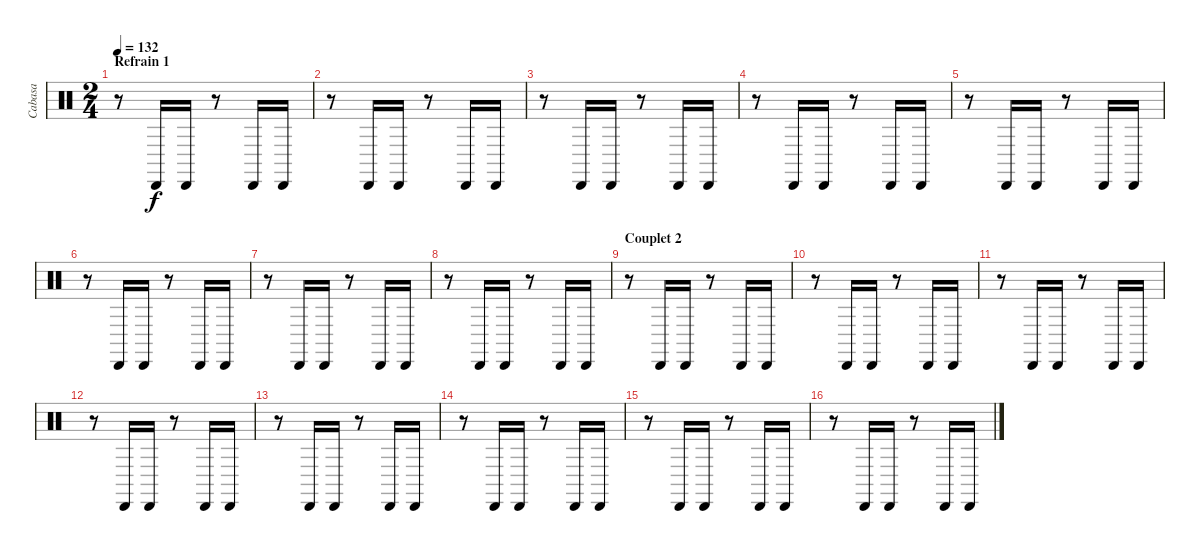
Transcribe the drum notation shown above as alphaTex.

\track ("Cabasa" "Cabasa") {instrument percussion}
\staff {score}
\articulation defaults
\ts (2 4)
\section ("" "Refrain 1")
\tempo 132
\clef neutral
\ks c
r.8{dy f} "Cabasa (hit)".16 "Cabasa (hit)".16 r.8 "Cabasa (hit)".16 "Cabasa (hit)".16 |
r.8 "Cabasa (hit)".16 "Cabasa (hit)".16 r.8 "Cabasa (hit)".16 "Cabasa (hit)".16 |
r.8 "Cabasa (hit)".16 "Cabasa (hit)".16 r.8 "Cabasa (hit)".16 "Cabasa (hit)".16 |
r.8 "Cabasa (hit)".16 "Cabasa (hit)".16 r.8 "Cabasa (hit)".16 "Cabasa (hit)".16 |
r.8 "Cabasa (hit)".16 "Cabasa (hit)".16 r.8 "Cabasa (hit)".16 "Cabasa (hit)".16 |
r.8 "Cabasa (hit)".16 "Cabasa (hit)".16 r.8 "Cabasa (hit)".16 "Cabasa (hit)".16 |
r.8 "Cabasa (hit)".16 "Cabasa (hit)".16 r.8 "Cabasa (hit)".16 "Cabasa (hit)".16 |
r.8 "Cabasa (hit)".16 "Cabasa (hit)".16 r.8 "Cabasa (hit)".16 "Cabasa (hit)".16 |
\section ("" "Couplet 2")
r.8 "Cabasa (hit)".16 "Cabasa (hit)".16 r.8 "Cabasa (hit)".16 "Cabasa (hit)".16 |
r.8 "Cabasa (hit)".16 "Cabasa (hit)".16 r.8 "Cabasa (hit)".16 "Cabasa (hit)".16 |
r.8 "Cabasa (hit)".16 "Cabasa (hit)".16 r.8 "Cabasa (hit)".16 "Cabasa (hit)".16 |
r.8 "Cabasa (hit)".16 "Cabasa (hit)".16 r.8 "Cabasa (hit)".16 "Cabasa (hit)".16 |
r.8 "Cabasa (hit)".16 "Cabasa (hit)".16 r.8 "Cabasa (hit)".16 "Cabasa (hit)".16 |
r.8 "Cabasa (hit)".16 "Cabasa (hit)".16 r.8 "Cabasa (hit)".16 "Cabasa (hit)".16 |
r.8 "Cabasa (hit)".16 "Cabasa (hit)".16 r.8 "Cabasa (hit)".16 "Cabasa (hit)".16 |
r.8 "Cabasa (hit)".16 "Cabasa (hit)".16 r.8 "Cabasa (hit)".16 "Cabasa (hit)".16
